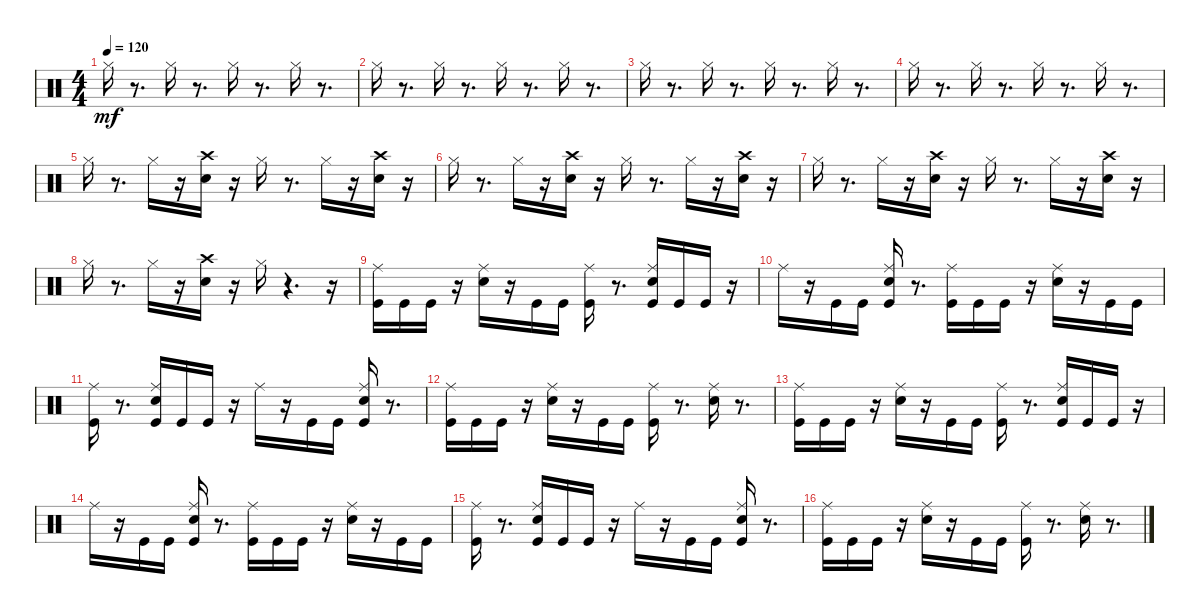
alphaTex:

\track "" {instrument percussion}
\staff {score}
\articulation defaults
\ts (4 4)
\tempo 120
\clef neutral
\ks c "Hi-Hat (closed)".16{dy mf}
r.8{d} "Hi-Hat (closed)".16 r.8{d} "Hi-Hat (closed)".16 r.8{d} "Hi-Hat (closed)".16 r.8{d} |
"Hi-Hat (closed)".16 r.8{d} "Hi-Hat (closed)".16 r.8{d} "Hi-Hat (closed)".16 r.8{d} "Hi-Hat (closed)".16 r.8{d} |
"Hi-Hat (closed)".16 r.8{d} "Hi-Hat (closed)".16 r.8{d} "Hi-Hat (closed)".16 r.8{d} "Hi-Hat (closed)".16 r.8{d} |
"Hi-Hat (closed)".16 r.8{d} "Hi-Hat (closed)".16 r.8{d} "Hi-Hat (closed)".16 r.8{d} "Hi-Hat (closed)".16 r.8{d} |
"Hi-Hat (closed)".16 r.8{d} "Hi-Hat (closed)".16 r.16 ("Crash high (hit)" "Snare (hit) 2").16 r.16 "Hi-Hat (closed)".16 r.8{d} "Hi-Hat (closed)".16 r.16 ("Crash high (hit)" "Snare (hit) 2").16 r.16 |
"Hi-Hat (closed)".16 r.8{d} "Hi-Hat (closed)".16 r.16 ("Crash high (hit)" "Snare (hit) 2").16 r.16 "Hi-Hat (closed)".16 r.8{d} "Hi-Hat (closed)".16 r.16 ("Crash high (hit)" "Snare (hit) 2").16 r.16 |
"Hi-Hat (closed)".16 r.8{d} "Hi-Hat (closed)".16 r.16 ("Crash high (hit)" "Snare (hit) 2").16 r.16 "Hi-Hat (closed)".16 r.8{d} "Hi-Hat (closed)".16 r.16 ("Crash high (hit)" "Snare (hit) 2").16 r.16 |
"Hi-Hat (closed)".16 r.8{d} "Hi-Hat (closed)".16 r.16 ("Crash high (hit)" "Snare (hit) 2").16 r.16 "Hi-Hat (closed)".16 r.4{d} r.16 |
("Ride (middle)" "Kick (hit)").16 "Kick (hit)".16 "Kick (hit)".16 r.16 ("Ride (middle)" "Snare (hit) 2").16 r.16 "Kick (hit)".16 "Kick (hit)".16 ("Ride (middle)" "Kick (hit)").16 r.8{d} ("Ride (middle)" "Snare (hit) 2" "Kick (hit)").16 "Kick (hit)".16 "Kick (hit)".16 r.16 |
"Ride (middle)".16 r.16 "Kick (hit)".16 "Kick (hit)".16 ("Ride (middle)" "Snare (hit) 2" "Kick (hit)").16 r.8{d} ("Ride (middle)" "Kick (hit)").16 "Kick (hit)".16 "Kick (hit)".16 r.16 ("Ride (middle)" "Snare (hit) 2").16 r.16 "Kick (hit)".16 "Kick (hit)".16 |
("Ride (middle)" "Kick (hit)").16 r.8{d} ("Ride (middle)" "Snare (hit) 2" "Kick (hit)").16 "Kick (hit)".16 "Kick (hit)".16 r.16 "Ride (middle)".16 r.16 "Kick (hit)".16 "Kick (hit)".16 ("Ride (middle)" "Snare (hit) 2" "Kick (hit)").16 r.8{d} |
("Ride (middle)" "Kick (hit)").16 "Kick (hit)".16 "Kick (hit)".16 r.16 ("Ride (middle)" "Snare (hit) 2").16 r.16 "Kick (hit)".16 "Kick (hit)".16 ("Ride (middle)" "Kick (hit)").16 r.8{d} ("Ride (middle)" "Snare (hit) 2").16 r.8{d} |
("Ride (middle)" "Kick (hit)").16 "Kick (hit)".16 "Kick (hit)".16 r.16 ("Ride (middle)" "Snare (hit) 2").16 r.16 "Kick (hit)".16 "Kick (hit)".16 ("Ride (middle)" "Kick (hit)").16 r.8{d} ("Ride (middle)" "Snare (hit) 2" "Kick (hit)").16 "Kick (hit)".16 "Kick (hit)".16 r.16 |
"Ride (middle)".16 r.16 "Kick (hit)".16 "Kick (hit)".16 ("Ride (middle)" "Snare (hit) 2" "Kick (hit)").16 r.8{d} ("Ride (middle)" "Kick (hit)").16 "Kick (hit)".16 "Kick (hit)".16 r.16 ("Ride (middle)" "Snare (hit) 2").16 r.16 "Kick (hit)".16 "Kick (hit)".16 |
("Ride (middle)" "Kick (hit)").16 r.8{d} ("Ride (middle)" "Snare (hit) 2" "Kick (hit)").16 "Kick (hit)".16 "Kick (hit)".16 r.16 "Ride (middle)".16 r.16 "Kick (hit)".16 "Kick (hit)".16 ("Ride (middle)" "Snare (hit) 2" "Kick (hit)").16 r.8{d} |
("Ride (middle)" "Kick (hit)").16 "Kick (hit)".16 "Kick (hit)".16 r.16 ("Ride (middle)" "Snare (hit) 2").16 r.16 "Kick (hit)".16 "Kick (hit)".16 ("Ride (middle)" "Kick (hit)").16 r.8{d} ("Ride (middle)" "Snare (hit) 2").16 r.8{d}
